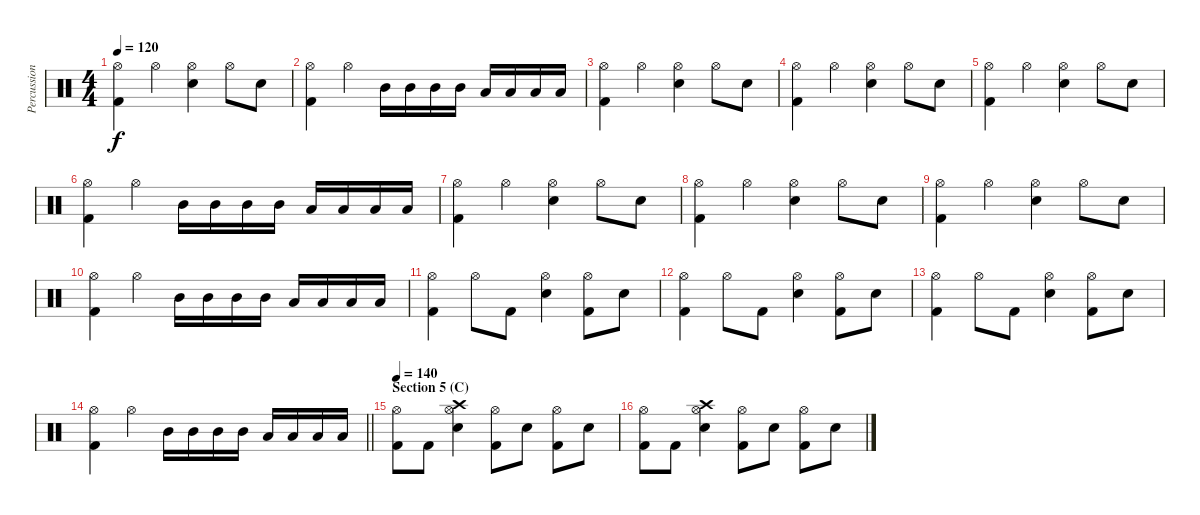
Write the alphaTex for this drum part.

\track ("Percussion" "Percussion") {instrument percussion}
\staff {score}
\articulation defaults
\ts (4 4)
\tempo 120
\clef neutral
\ks c
("Hi-Hat (open)" "Kick (hit) 2").4{dy f} "Hi-Hat (open)".4 ("Hi-Hat (open)" "Snare (hit) 2").4 "Hi-Hat (open)".8 "Snare (hit) 2".8 |
("Hi-Hat (open)" "Kick (hit) 2").4 "Hi-Hat (open)".4 "Mid Tom (hit)".16 "Mid Tom (hit)".16 "Mid Tom (hit)".16 "Mid Tom (hit)".16 "Low Tom (hit)".16 "Low Tom (hit)".16 "Low Tom (hit)".16 "Low Tom (hit)".16 |
("Hi-Hat (open)" "Kick (hit) 2").4 "Hi-Hat (open)".4 ("Hi-Hat (open)" "Snare (hit) 2").4 "Hi-Hat (open)".8 "Snare (hit) 2".8 |
("Hi-Hat (open)" "Kick (hit) 2").4 "Hi-Hat (open)".4 ("Hi-Hat (open)" "Snare (hit) 2").4 "Hi-Hat (open)".8 "Snare (hit) 2".8 |
("Hi-Hat (open)" "Kick (hit) 2").4 "Hi-Hat (open)".4 ("Hi-Hat (open)" "Snare (hit) 2").4 "Hi-Hat (open)".8 "Snare (hit) 2".8 |
("Hi-Hat (open)" "Kick (hit) 2").4 "Hi-Hat (open)".4 "Mid Tom (hit)".16 "Mid Tom (hit)".16 "Mid Tom (hit)".16 "Mid Tom (hit)".16 "Low Tom (hit)".16 "Low Tom (hit)".16 "Low Tom (hit)".16 "Low Tom (hit)".16 |
("Hi-Hat (open)" "Kick (hit) 2").4 "Hi-Hat (open)".4 ("Hi-Hat (open)" "Snare (hit) 2").4 "Hi-Hat (open)".8 "Snare (hit) 2".8 |
("Hi-Hat (open)" "Kick (hit) 2").4 "Hi-Hat (open)".4 ("Hi-Hat (open)" "Snare (hit) 2").4 "Hi-Hat (open)".8 "Snare (hit) 2".8 |
("Hi-Hat (open)" "Kick (hit) 2").4 "Hi-Hat (open)".4 ("Hi-Hat (open)" "Snare (hit) 2").4 "Hi-Hat (open)".8 "Snare (hit) 2".8 |
("Hi-Hat (open)" "Kick (hit) 2").4 "Hi-Hat (open)".4 "Mid Tom (hit)".16 "Mid Tom (hit)".16 "Mid Tom (hit)".16 "Mid Tom (hit)".16 "Low Tom (hit)".16 "Low Tom (hit)".16 "Low Tom (hit)".16 "Low Tom (hit)".16 |
("Hi-Hat (open)" "Kick (hit) 2").4 "Hi-Hat (open)".8 "Kick (hit) 2".8 ("Hi-Hat (open)" "Snare (hit) 2").4 ("Hi-Hat (open)" "Kick (hit) 2").8 "Snare (hit) 2".8 |
("Hi-Hat (open)" "Kick (hit) 2").4 "Hi-Hat (open)".8 "Kick (hit) 2".8 ("Hi-Hat (open)" "Snare (hit) 2").4 ("Hi-Hat (open)" "Kick (hit) 2").8 "Snare (hit) 2".8 |
("Hi-Hat (open)" "Kick (hit) 2").4 "Hi-Hat (open)".8 "Kick (hit) 2".8 ("Hi-Hat (open)" "Snare (hit) 2").4 ("Hi-Hat (open)" "Kick (hit) 2").8 "Snare (hit) 2".8 |
\barLineRight lightlight
("Hi-Hat (open)" "Kick (hit) 2").4 "Hi-Hat (open)".4 "Mid Tom (hit)".16 "Mid Tom (hit)".16 "Mid Tom (hit)".16 "Mid Tom (hit)".16 "Low Tom (hit)".16 "Low Tom (hit)".16 "Low Tom (hit)".16 "Low Tom (hit)".16 |
\section ("" "Section 5 (C)")
\tempo 140
("Hi-Hat (open)" "Kick (hit) 2").8 "Kick (hit) 2".8 ("Crash high (hit)" "Hi-Hat (open)" "Snare (hit) 2").4 ("Hi-Hat (open)" "Kick (hit) 2").8 "Snare (hit) 2".8 ("Hi-Hat (open)" "Kick (hit) 2").8 "Snare (hit) 2".8 |
("Hi-Hat (open)" "Kick (hit) 2").8 "Kick (hit) 2".8 ("Crash high (hit)" "Hi-Hat (open)" "Snare (hit) 2").4 ("Hi-Hat (open)" "Kick (hit) 2").8 "Snare (hit) 2".8 ("Hi-Hat (open)" "Kick (hit) 2").8 "Snare (hit) 2".8
